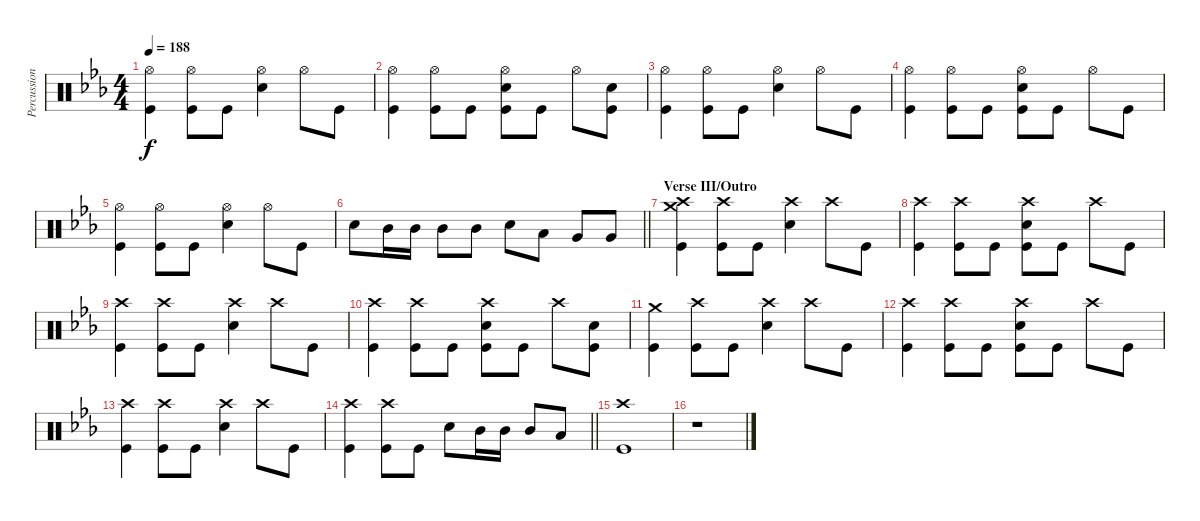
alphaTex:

\track ("Percussion" "Percussion") {instrument percussion}
\staff {score}
\articulation defaults
\ts (4 4)
\tempo 188
\clef neutral
\ks eb
("Hi-Hat (open)" "Kick (hit)").4{dy f} ("Hi-Hat (open)" "Kick (hit)").8 "Kick (hit)".8 ("Hi-Hat (open)" "Electric Snare (hit)").4 "Hi-Hat (open)".8 "Kick (hit)".8 |
("Hi-Hat (open)" "Kick (hit)").4 ("Hi-Hat (open)" "Kick (hit)").8 "Kick (hit)".8 ("Hi-Hat (open)" "Electric Snare (hit)" "Kick (hit)").8 "Kick (hit)".8 "Hi-Hat (open)".8 ("Electric Snare (hit)" "Kick (hit)").8 |
("Hi-Hat (open)" "Kick (hit)").4 ("Hi-Hat (open)" "Kick (hit)").8 "Kick (hit)".8 ("Hi-Hat (open)" "Electric Snare (hit)").4 "Hi-Hat (open)".8 "Kick (hit)".8 |
("Hi-Hat (open)" "Kick (hit)").4 ("Hi-Hat (open)" "Kick (hit)").8 "Kick (hit)".8 ("Hi-Hat (open)" "Electric Snare (hit)" "Kick (hit)").8 "Kick (hit)".8 "Hi-Hat (open)".8 "Kick (hit)".8 |
("Hi-Hat (open)" "Kick (hit)").4 ("Hi-Hat (open)" "Kick (hit)").8 "Kick (hit)".8 ("Hi-Hat (open)" "Electric Snare (hit)").4 "Hi-Hat (open)".8 "Kick (hit)".8 |
\barLineRight lightlight "Electric Snare (hit)".8 "Mid Tom (hit)".16 "Mid Tom (hit)".16 "Mid Tom (hit)".8 "Mid Tom (hit)".8 "Electric Snare (hit)".8 "Low Tom (hit)".8 "Very Low Tom (hit)".8 "Very Low Tom (hit)".8
|
\section ("" "Verse III/Outro")
("Crash high (hit)" "Crash medium (hit)" "Kick (hit)").4 ("Crash high (hit)" "Kick (hit)").8 "Kick (hit)".8 ("Crash high (hit)" "Electric Snare (hit)").4 "Crash high (hit)".8 "Kick (hit)".8 |
("Crash high (hit)" "Kick (hit)").4 ("Crash high (hit)" "Kick (hit)").8 "Kick (hit)".8 ("Crash high (hit)" "Electric Snare (hit)" "Kick (hit)").8 "Kick (hit)".8 "Crash high (hit)".8 "Kick (hit)".8 |
("Crash high (hit)" "Kick (hit)").4 ("Crash high (hit)" "Kick (hit)").8 "Kick (hit)".8 ("Crash high (hit)" "Electric Snare (hit)").4 "Crash high (hit)".8 "Kick (hit)".8 |
("Crash high (hit)" "Kick (hit)").4 ("Crash high (hit)" "Kick (hit)").8 "Kick (hit)".8 ("Crash high (hit)" "Electric Snare (hit)" "Kick (hit)").8 "Kick (hit)".8 "Crash high (hit)".8 ("Electric Snare (hit)" "Kick (hit)").8 |
("Crash medium (hit)" "Kick (hit)").4 ("Crash high (hit)" "Kick (hit)").8 "Kick (hit)".8 ("Crash high (hit)" "Electric Snare (hit)").4 "Crash high (hit)".8 "Kick (hit)".8 |
("Crash high (hit)" "Kick (hit)").4 ("Crash high (hit)" "Kick (hit)").8 "Kick (hit)".8 ("Crash high (hit)" "Electric Snare (hit)" "Kick (hit)").8 "Kick (hit)".8 "Crash high (hit)".8 "Kick (hit)".8 |
("Crash high (hit)" "Kick (hit)").4 ("Crash high (hit)" "Kick (hit)").8 "Kick (hit)".8 ("Crash high (hit)" "Electric Snare (hit)").4 "Crash high (hit)".8 "Kick (hit)".8 |
\barLineRight lightlight
("Crash high (hit)" "Kick (hit)").4 ("Crash high (hit)" "Kick (hit)").8 "Kick (hit)".8 "Electric Snare (hit)".8 "Mid Tom (hit)".16 "Mid Tom (hit)".16 "Mid Tom (hit)".8 "Low Tom (hit)".8 |
("Crash high (hit)" "Kick (hit)").1 |
r.1
